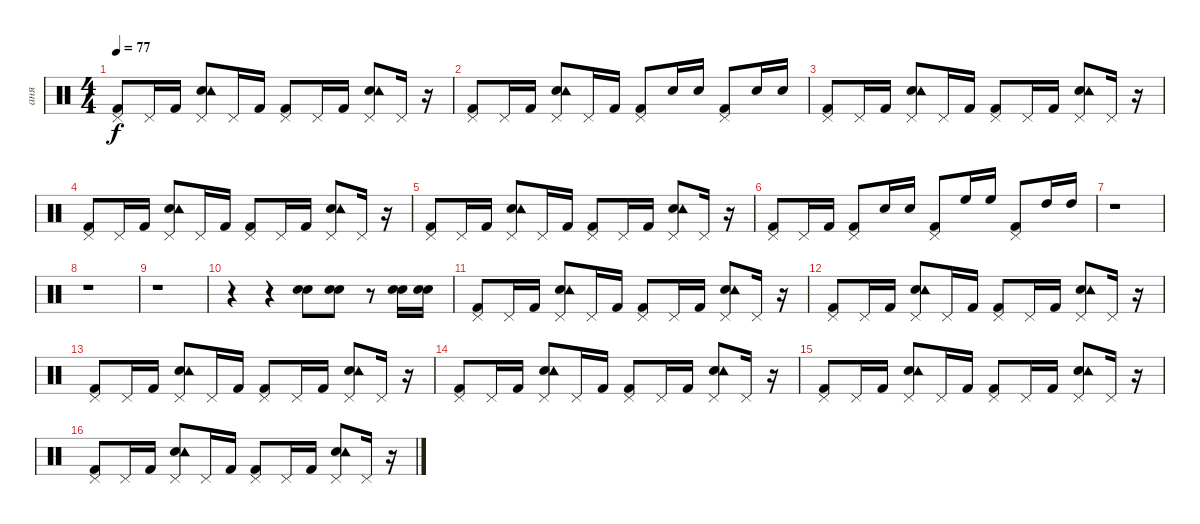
\track ("аня" "аня") {instrument percussion}
\staff {score}
\articulation defaults
\ts (4 4)
\tempo 77
\clef neutral
\ks c
("Kick (hit) 2" "Pedal Hi-Hat (hit)").8{dy f} "Pedal Hi-Hat (hit)".16 "Kick (hit) 2".16 ("Snare (hit) 2" "Tambourine (hit)" "Pedal Hi-Hat (hit)").8 "Pedal Hi-Hat (hit)".16 "Kick (hit) 2".16 ("Kick (hit) 2" "Pedal Hi-Hat (hit)").8 "Pedal Hi-Hat (hit)".16 "Kick (hit) 2".16 ("Snare (hit) 2" "Tambourine (hit)" "Pedal Hi-Hat (hit)").8 "Pedal Hi-Hat (hit)".16 r.16 |
("Kick (hit) 2" "Pedal Hi-Hat (hit)").8 "Pedal Hi-Hat (hit)".16 "Kick (hit) 2".16 ("Snare (hit) 2" "Tambourine (hit)" "Pedal Hi-Hat (hit)").8 "Pedal Hi-Hat (hit)".16 "Kick (hit) 2".16 ("Kick (hit) 2" "Pedal Hi-Hat (hit)").8 "Snare (hit) 2".16 "Snare (hit) 2".16 ("Kick (hit) 2" "Pedal Hi-Hat (hit)").8 "Snare (hit) 2".16 "Snare (hit) 2".16 |
("Kick (hit) 2" "Pedal Hi-Hat (hit)").8 "Pedal Hi-Hat (hit)".16 "Kick (hit) 2".16 ("Snare (hit) 2" "Tambourine (hit)" "Pedal Hi-Hat (hit)").8 "Pedal Hi-Hat (hit)".16 "Kick (hit) 2".16 ("Kick (hit) 2" "Pedal Hi-Hat (hit)").8 "Pedal Hi-Hat (hit)".16 "Kick (hit) 2".16 ("Snare (hit) 2" "Tambourine (hit)" "Pedal Hi-Hat (hit)").8 "Pedal Hi-Hat (hit)".16 r.16 |
("Kick (hit) 2" "Pedal Hi-Hat (hit)").8 "Pedal Hi-Hat (hit)".16 "Kick (hit) 2".16 ("Snare (hit) 2" "Tambourine (hit)" "Pedal Hi-Hat (hit)").8 "Pedal Hi-Hat (hit)".16 "Kick (hit) 2".16 ("Kick (hit) 2" "Pedal Hi-Hat (hit)").8 "Pedal Hi-Hat (hit)".16 "Kick (hit) 2".16 ("Snare (hit) 2" "Tambourine (hit)" "Pedal Hi-Hat (hit)").8 "Pedal Hi-Hat (hit)".16 r.16 |
("Kick (hit) 2" "Pedal Hi-Hat (hit)").8 "Pedal Hi-Hat (hit)".16 "Kick (hit) 2".16 ("Snare (hit) 2" "Tambourine (hit)" "Pedal Hi-Hat (hit)").8 "Pedal Hi-Hat (hit)".16 "Kick (hit) 2".16 ("Kick (hit) 2" "Pedal Hi-Hat (hit)").8 "Pedal Hi-Hat (hit)".16 "Kick (hit) 2".16 ("Snare (hit) 2" "Tambourine (hit)" "Pedal Hi-Hat (hit)").8 "Pedal Hi-Hat (hit)".16 r.16 |
("Kick (hit) 2" "Pedal Hi-Hat (hit)").8 "Pedal Hi-Hat (hit)".16 "Kick (hit) 2".16 ("Kick (hit) 2" "Pedal Hi-Hat (hit)").8 "Snare (hit) 2".16 "Snare (hit) 2".16 ("Kick (hit) 2" "Pedal Hi-Hat (hit)").8 "High Floor Tom (hit)".16 "High Floor Tom (hit)".16 ("Kick (hit) 2" "Pedal Hi-Hat (hit)").8 "High Tom (hit)".16 "High Tom (hit)".16 |
r.1 |
r.1 |
r.1 |
r.4 r.4 ("Electric Snare (hit)" "Snare (hit) 2").8 ("Electric Snare (hit)" "Snare (hit) 2").8 r.8 ("Electric Snare (hit)" "Snare (hit) 2").16 ("Electric Snare (hit)" "Snare (hit) 2").16 |
("Kick (hit) 2" "Pedal Hi-Hat (hit)").8 "Pedal Hi-Hat (hit)".16 "Kick (hit) 2".16 ("Snare (hit) 2" "Tambourine (hit)" "Pedal Hi-Hat (hit)").8 "Pedal Hi-Hat (hit)".16 "Kick (hit) 2".16 ("Kick (hit) 2" "Pedal Hi-Hat (hit)").8 "Pedal Hi-Hat (hit)".16 "Kick (hit) 2".16 ("Snare (hit) 2" "Tambourine (hit)" "Pedal Hi-Hat (hit)").8 "Pedal Hi-Hat (hit)".16 r.16 |
("Kick (hit) 2" "Pedal Hi-Hat (hit)").8 "Pedal Hi-Hat (hit)".16 "Kick (hit) 2".16 ("Snare (hit) 2" "Tambourine (hit)" "Pedal Hi-Hat (hit)").8 "Pedal Hi-Hat (hit)".16 "Kick (hit) 2".16 ("Kick (hit) 2" "Pedal Hi-Hat (hit)").8 "Pedal Hi-Hat (hit)".16 "Kick (hit) 2".16 ("Snare (hit) 2" "Tambourine (hit)" "Pedal Hi-Hat (hit)").8 "Pedal Hi-Hat (hit)".16 r.16 |
("Kick (hit) 2" "Pedal Hi-Hat (hit)").8 "Pedal Hi-Hat (hit)".16 "Kick (hit) 2".16 ("Snare (hit) 2" "Tambourine (hit)" "Pedal Hi-Hat (hit)").8 "Pedal Hi-Hat (hit)".16 "Kick (hit) 2".16 ("Kick (hit) 2" "Pedal Hi-Hat (hit)").8 "Pedal Hi-Hat (hit)".16 "Kick (hit) 2".16 ("Snare (hit) 2" "Tambourine (hit)" "Pedal Hi-Hat (hit)").8 "Pedal Hi-Hat (hit)".16 r.16 |
("Kick (hit) 2" "Pedal Hi-Hat (hit)").8 "Pedal Hi-Hat (hit)".16 "Kick (hit) 2".16 ("Snare (hit) 2" "Tambourine (hit)" "Pedal Hi-Hat (hit)").8 "Pedal Hi-Hat (hit)".16 "Kick (hit) 2".16 ("Kick (hit) 2" "Pedal Hi-Hat (hit)").8 "Pedal Hi-Hat (hit)".16 "Kick (hit) 2".16 ("Snare (hit) 2" "Tambourine (hit)" "Pedal Hi-Hat (hit)").8 "Pedal Hi-Hat (hit)".16 r.16 |
("Kick (hit) 2" "Pedal Hi-Hat (hit)").8 "Pedal Hi-Hat (hit)".16 "Kick (hit) 2".16 ("Snare (hit) 2" "Tambourine (hit)" "Pedal Hi-Hat (hit)").8 "Pedal Hi-Hat (hit)".16 "Kick (hit) 2".16 ("Kick (hit) 2" "Pedal Hi-Hat (hit)").8 "Pedal Hi-Hat (hit)".16 "Kick (hit) 2".16 ("Snare (hit) 2" "Tambourine (hit)" "Pedal Hi-Hat (hit)").8 "Pedal Hi-Hat (hit)".16 r.16 |
("Kick (hit) 2" "Pedal Hi-Hat (hit)").8 "Pedal Hi-Hat (hit)".16 "Kick (hit) 2".16 ("Snare (hit) 2" "Tambourine (hit)" "Pedal Hi-Hat (hit)").8 "Pedal Hi-Hat (hit)".16 "Kick (hit) 2".16 ("Kick (hit) 2" "Pedal Hi-Hat (hit)").8 "Pedal Hi-Hat (hit)".16 "Kick (hit) 2".16 ("Snare (hit) 2" "Tambourine (hit)" "Pedal Hi-Hat (hit)").8 "Pedal Hi-Hat (hit)".16 r.16
